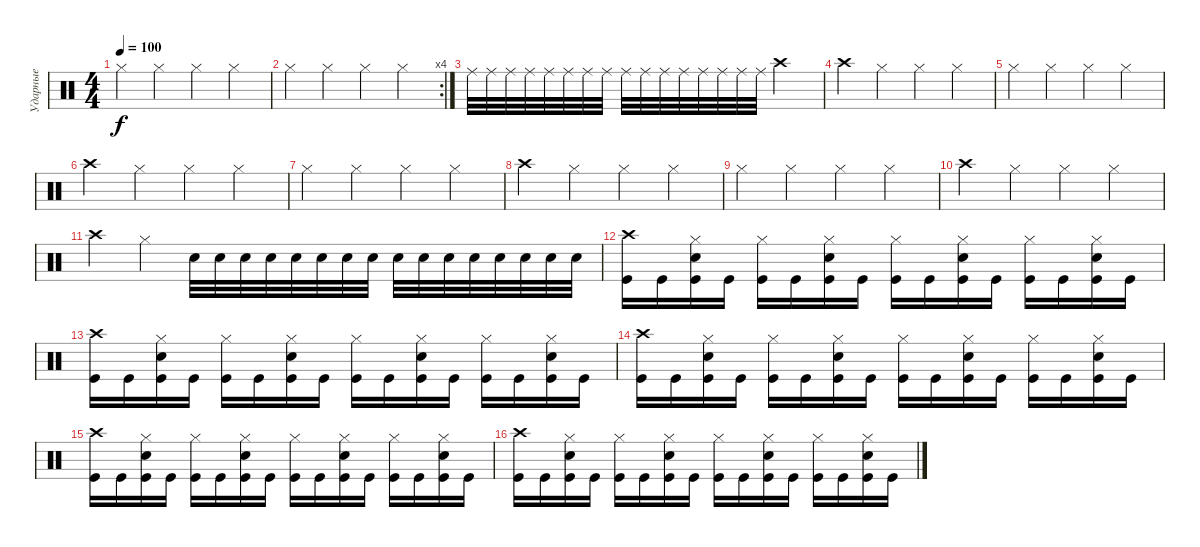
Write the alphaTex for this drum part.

\track ("Ударные" "Ударные") {instrument percussion}
\staff {score}
\articulation defaults
\ts (4 4)
\tempo 100
\clef neutral
\ks c "Hi-Hat (closed)".4{dy f} "Hi-Hat (closed)".4 "Hi-Hat (closed)".4 "Hi-Hat (closed)".4
|
\rc 4 "Hi-Hat (closed)".4 "Hi-Hat (closed)".4 "Hi-Hat (closed)".4 "Hi-Hat (closed)".4
|
"Ride (middle)".32 "Ride (middle)".32 "Ride (middle)".32 "Ride (middle)".32 "Ride (middle)".32 "Ride (middle)".32 "Ride (middle)".32 "Ride (middle)".32 "Ride (middle)".32 "Ride (middle)".32 "Ride (middle)".32 "Ride (middle)".32 "Ride (middle)".32 "Ride (middle)".32 "Ride (middle)".32 "Ride (middle)".32 "Crash high (hit)".2 |
"Crash high (hit)".4 "Hi-Hat (closed)".4 "Hi-Hat (closed)".4 "Hi-Hat (closed)".4 |
"Hi-Hat (closed)".4 "Hi-Hat (closed)".4 "Hi-Hat (closed)".4 "Hi-Hat (closed)".4 |
"Crash high (hit)".4 "Hi-Hat (closed)".4 "Hi-Hat (closed)".4 "Hi-Hat (closed)".4 |
"Hi-Hat (closed)".4 "Hi-Hat (closed)".4 "Hi-Hat (closed)".4 "Hi-Hat (closed)".4 |
"Crash high (hit)".4 "Hi-Hat (closed)".4 "Hi-Hat (closed)".4 "Hi-Hat (closed)".4 |
"Hi-Hat (closed)".4 "Hi-Hat (closed)".4 "Hi-Hat (closed)".4 "Hi-Hat (closed)".4 |
"Crash high (hit)".4 "Hi-Hat (closed)".4 "Hi-Hat (closed)".4 "Hi-Hat (closed)".4 |
"Crash high (hit)".4 "Hi-Hat (closed)".4 "Snare (hit) 2".32 "Snare (hit) 2".32 "Snare (hit) 2".32 "Snare (hit) 2".32 "Snare (hit) 2".32 "Snare (hit) 2".32 "Snare (hit) 2".32 "Snare (hit) 2".32 "Snare (hit) 2".32 "Snare (hit) 2".32 "Snare (hit) 2".32 "Snare (hit) 2".32 "Snare (hit) 2".32 "Snare (hit) 2".32 "Snare (hit) 2".32 "Snare (hit) 2".32 |
("Kick (hit)" "Crash high (hit)").16 "Kick (hit)".16 ("Kick (hit)" "Hi-Hat (closed)" "Snare (hit) 2").16 "Kick (hit)".16 ("Kick (hit)" "Hi-Hat (closed)").16 "Kick (hit)".16 ("Kick (hit)" "Hi-Hat (closed)" "Snare (hit) 2").16 "Kick (hit)".16 ("Kick (hit)" "Hi-Hat (closed)").16 "Kick (hit)".16 ("Kick (hit)" "Hi-Hat (closed)" "Snare (hit) 2").16 "Kick (hit)".16 ("Kick (hit)" "Hi-Hat (closed)").16 "Kick (hit)".16 ("Kick (hit)" "Hi-Hat (closed)" "Snare (hit) 2").16 "Kick (hit)".16 |
("Kick (hit)" "Crash high (hit)").16 "Kick (hit)".16 ("Kick (hit)" "Hi-Hat (closed)" "Snare (hit) 2").16 "Kick (hit)".16 ("Kick (hit)" "Hi-Hat (closed)").16 "Kick (hit)".16 ("Kick (hit)" "Hi-Hat (closed)" "Snare (hit) 2").16 "Kick (hit)".16 ("Kick (hit)" "Hi-Hat (closed)").16 "Kick (hit)".16 ("Kick (hit)" "Hi-Hat (closed)" "Snare (hit) 2").16 "Kick (hit)".16 ("Kick (hit)" "Hi-Hat (closed)").16 "Kick (hit)".16 ("Kick (hit)" "Hi-Hat (closed)" "Snare (hit) 2").16 "Kick (hit)".16 |
("Kick (hit)" "Crash high (hit)").16 "Kick (hit)".16 ("Kick (hit)" "Hi-Hat (closed)" "Snare (hit) 2").16 "Kick (hit)".16 ("Kick (hit)" "Hi-Hat (closed)").16 "Kick (hit)".16 ("Kick (hit)" "Hi-Hat (closed)" "Snare (hit) 2").16 "Kick (hit)".16 ("Kick (hit)" "Hi-Hat (closed)").16 "Kick (hit)".16 ("Kick (hit)" "Hi-Hat (closed)" "Snare (hit) 2").16 "Kick (hit)".16 ("Kick (hit)" "Hi-Hat (closed)").16 "Kick (hit)".16 ("Kick (hit)" "Hi-Hat (closed)" "Snare (hit) 2").16 "Kick (hit)".16 |
("Kick (hit)" "Crash high (hit)").16 "Kick (hit)".16 ("Kick (hit)" "Hi-Hat (closed)" "Snare (hit) 2").16 "Kick (hit)".16 ("Kick (hit)" "Hi-Hat (closed)").16 "Kick (hit)".16 ("Kick (hit)" "Hi-Hat (closed)" "Snare (hit) 2").16 "Kick (hit)".16 ("Kick (hit)" "Hi-Hat (closed)").16 "Kick (hit)".16 ("Kick (hit)" "Hi-Hat (closed)" "Snare (hit) 2").16 "Kick (hit)".16 ("Kick (hit)" "Hi-Hat (closed)").16 "Kick (hit)".16 ("Kick (hit)" "Hi-Hat (closed)" "Snare (hit) 2").16 "Kick (hit)".16 |
("Kick (hit)" "Crash high (hit)").16 "Kick (hit)".16 ("Kick (hit)" "Hi-Hat (closed)" "Snare (hit) 2").16 "Kick (hit)".16 ("Kick (hit)" "Hi-Hat (closed)").16 "Kick (hit)".16 ("Kick (hit)" "Hi-Hat (closed)" "Snare (hit) 2").16 "Kick (hit)".16 ("Kick (hit)" "Hi-Hat (closed)").16 "Kick (hit)".16 ("Kick (hit)" "Hi-Hat (closed)" "Snare (hit) 2").16 "Kick (hit)".16 ("Kick (hit)" "Hi-Hat (closed)").16 "Kick (hit)".16 ("Kick (hit)" "Hi-Hat (closed)" "Snare (hit) 2").16 "Kick (hit)".16
